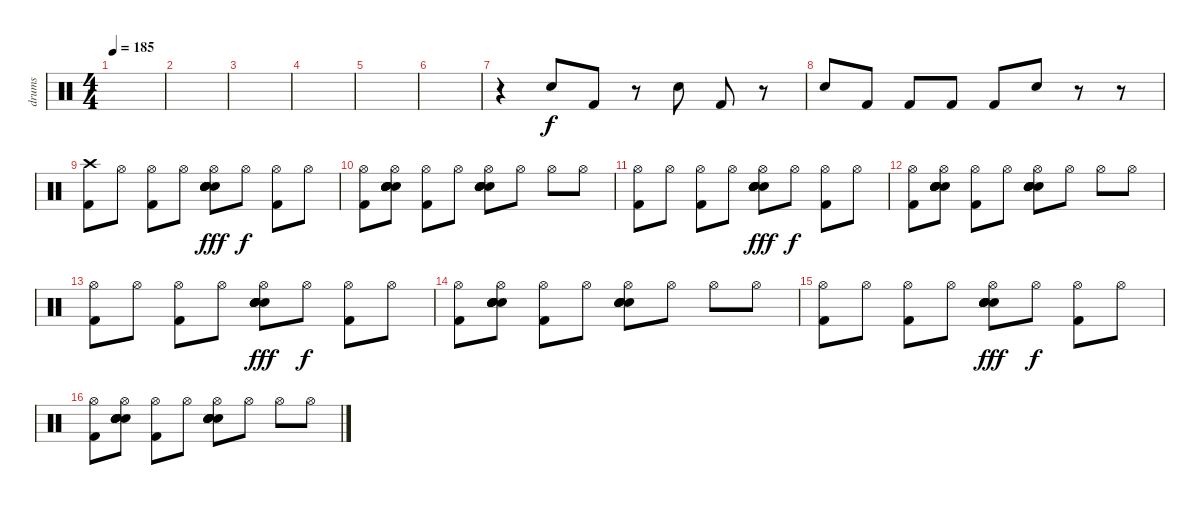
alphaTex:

\track ("drums" "drums") {instrument percussion}
\staff {score}
\articulation defaults
\ts (4 4)
\tempo 185
\clef neutral
\ks c
|
|
|
|
|
|
r.4 "Electric Snare (hit)".8 "Kick (hit) 2".8 r.8 "Electric Snare (hit)".8 "Kick (hit) 2".8 r.8 |
"Electric Snare (hit)".8 "Kick (hit) 2".8 "Kick (hit) 2".8 "Kick (hit) 2".8 "Kick (hit) 2".8 "Electric Snare (hit)".8 r.8 r.8 |
("Crash high (hit)" "Kick (hit) 2").8 "Hi-Hat (open)".8 ("Hi-Hat (open)" "Kick (hit) 2").8 "Hi-Hat (open)".8 ("Hi-Hat (open)" "Electric Snare (hit)" "Electric Snare (hit)" "Electric Snare (hit)" "Electric Snare (hit)" "Electric Snare (hit)").8{dy fff} "Hi-Hat (open)".8{dy f} ("Hi-Hat (open)" "Kick (hit) 2").8 "Hi-Hat (open)".8 |
("Hi-Hat (open)" "Kick (hit) 2").8 ("Hi-Hat (open)" "Electric Snare (hit)" "Electric Snare (hit)" "Electric Snare (hit)" "Electric Snare (hit)" "Electric Snare (hit)").8 ("Hi-Hat (open)" "Kick (hit) 2").8 "Hi-Hat (open)".8 ("Hi-Hat (open)" "Electric Snare (hit)" "Electric Snare (hit)" "Electric Snare (hit)" "Electric Snare (hit)" "Electric Snare (hit)").8 "Hi-Hat (open)".8 "Hi-Hat (open)".8 "Hi-Hat (open)".8 |
("Hi-Hat (open)" "Kick (hit) 2").8 "Hi-Hat (open)".8 ("Hi-Hat (open)" "Kick (hit) 2").8 "Hi-Hat (open)".8 ("Hi-Hat (open)" "Electric Snare (hit)" "Electric Snare (hit)" "Electric Snare (hit)" "Electric Snare (hit)" "Electric Snare (hit)").8{dy fff} "Hi-Hat (open)".8{dy f} ("Hi-Hat (open)" "Kick (hit) 2").8 "Hi-Hat (open)".8 |
("Hi-Hat (open)" "Kick (hit) 2").8 ("Hi-Hat (open)" "Electric Snare (hit)" "Electric Snare (hit)" "Electric Snare (hit)" "Electric Snare (hit)" "Electric Snare (hit)").8 ("Hi-Hat (open)" "Kick (hit) 2").8 "Hi-Hat (open)".8 ("Hi-Hat (open)" "Electric Snare (hit)" "Electric Snare (hit)" "Electric Snare (hit)" "Electric Snare (hit)" "Electric Snare (hit)").8 "Hi-Hat (open)".8 "Hi-Hat (open)".8 "Hi-Hat (open)".8 |
("Hi-Hat (open)" "Kick (hit) 2").8 "Hi-Hat (open)".8 ("Hi-Hat (open)" "Kick (hit) 2").8 "Hi-Hat (open)".8 ("Hi-Hat (open)" "Electric Snare (hit)" "Electric Snare (hit)" "Electric Snare (hit)" "Electric Snare (hit)" "Electric Snare (hit)").8{dy fff} "Hi-Hat (open)".8{dy f} ("Hi-Hat (open)" "Kick (hit) 2").8 "Hi-Hat (open)".8 |
("Hi-Hat (open)" "Kick (hit) 2").8 ("Hi-Hat (open)" "Electric Snare (hit)" "Electric Snare (hit)" "Electric Snare (hit)" "Electric Snare (hit)" "Electric Snare (hit)").8 ("Hi-Hat (open)" "Kick (hit) 2").8 "Hi-Hat (open)".8 ("Hi-Hat (open)" "Electric Snare (hit)" "Electric Snare (hit)" "Electric Snare (hit)" "Electric Snare (hit)" "Electric Snare (hit)").8 "Hi-Hat (open)".8 "Hi-Hat (open)".8 "Hi-Hat (open)".8 |
("Hi-Hat (open)" "Kick (hit) 2").8 "Hi-Hat (open)".8 ("Hi-Hat (open)" "Kick (hit) 2").8 "Hi-Hat (open)".8 ("Hi-Hat (open)" "Electric Snare (hit)" "Electric Snare (hit)" "Electric Snare (hit)" "Electric Snare (hit)" "Electric Snare (hit)").8{dy fff} "Hi-Hat (open)".8{dy f} ("Hi-Hat (open)" "Kick (hit) 2").8 "Hi-Hat (open)".8 |
("Hi-Hat (open)" "Kick (hit) 2").8 ("Hi-Hat (open)" "Electric Snare (hit)" "Electric Snare (hit)" "Electric Snare (hit)" "Electric Snare (hit)" "Electric Snare (hit)").8 ("Hi-Hat (open)" "Kick (hit) 2").8 "Hi-Hat (open)".8 ("Hi-Hat (open)" "Electric Snare (hit)" "Electric Snare (hit)" "Electric Snare (hit)" "Electric Snare (hit)" "Electric Snare (hit)").8 "Hi-Hat (open)".8 "Hi-Hat (open)".8 "Hi-Hat (open)".8
